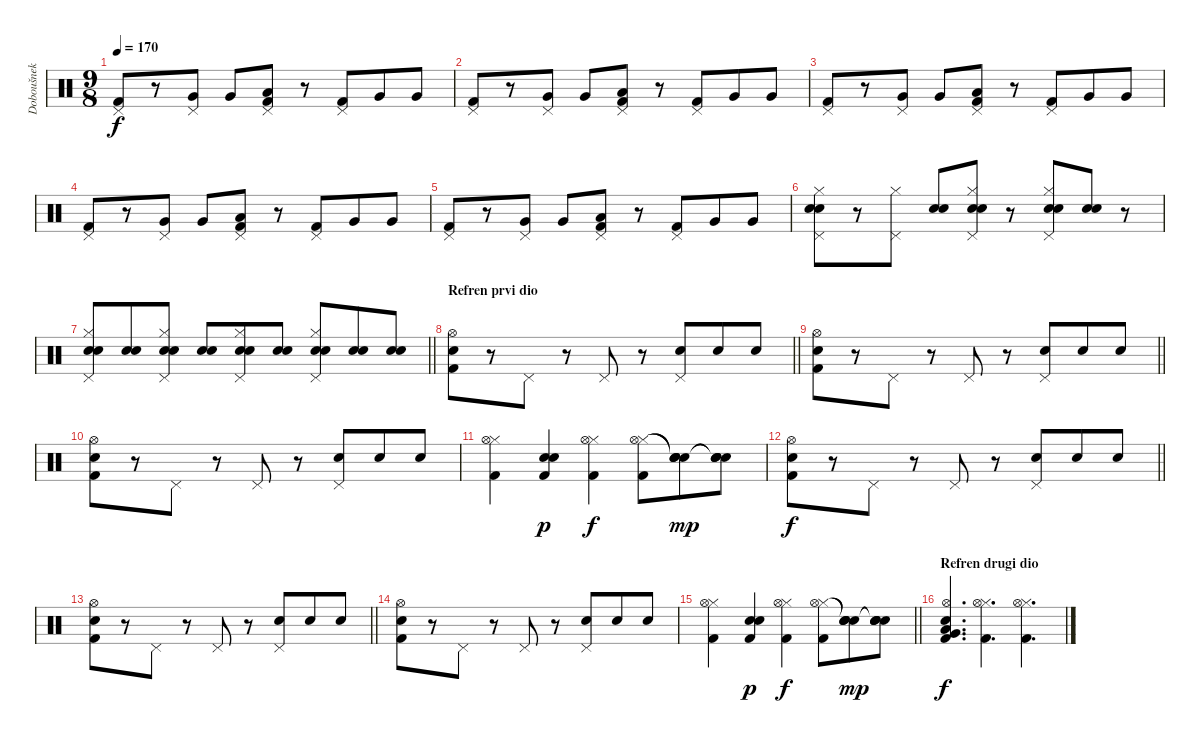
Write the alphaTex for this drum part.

\track ("Doboušnek" "Doboušnek") {instrument percussion}
\staff {score}
\articulation defaults
\ts (9 8)
\tempo 170
\clef neutral
\ks c
("Pedal Hi-Hat (hit)" "Kick (hit) 2").8{dy f} r.8 ("Pedal Hi-Hat (hit)" "Very Low Tom (hit)").8 "Very Low Tom (hit)".8 ("Pedal Hi-Hat (hit)" "Low Tom (hit)" "Kick (hit) 2").8 r.8 ("Pedal Hi-Hat (hit)" "Kick (hit) 2").8 "Very Low Tom (hit)".8 "Very Low Tom (hit)".8 |
("Pedal Hi-Hat (hit)" "Kick (hit) 2").8 r.8 ("Pedal Hi-Hat (hit)" "Very Low Tom (hit)").8 "Very Low Tom (hit)".8 ("Pedal Hi-Hat (hit)" "Low Tom (hit)" "Kick (hit) 2").8 r.8 ("Pedal Hi-Hat (hit)" "Kick (hit) 2").8 "Very Low Tom (hit)".8 "Very Low Tom (hit)".8 |
("Pedal Hi-Hat (hit)" "Kick (hit) 2").8 r.8 ("Pedal Hi-Hat (hit)" "Very Low Tom (hit)").8 "Very Low Tom (hit)".8 ("Pedal Hi-Hat (hit)" "Low Tom (hit)" "Kick (hit) 2").8 r.8 ("Pedal Hi-Hat (hit)" "Kick (hit) 2").8 "Very Low Tom (hit)".8 "Very Low Tom (hit)".8 |
("Pedal Hi-Hat (hit)" "Kick (hit) 2").8 r.8 ("Pedal Hi-Hat (hit)" "Very Low Tom (hit)").8 "Very Low Tom (hit)".8 ("Pedal Hi-Hat (hit)" "Low Tom (hit)" "Kick (hit) 2").8 r.8 ("Pedal Hi-Hat (hit)" "Kick (hit) 2").8 "Very Low Tom (hit)".8 "Very Low Tom (hit)".8 |
("Pedal Hi-Hat (hit)" "Kick (hit) 2").8 r.8 ("Pedal Hi-Hat (hit)" "Very Low Tom (hit)").8 "Very Low Tom (hit)".8 ("Pedal Hi-Hat (hit)" "Low Tom (hit)" "Kick (hit) 2").8 r.8 ("Pedal Hi-Hat (hit)" "Kick (hit) 2").8 "Very Low Tom (hit)".8 "Very Low Tom (hit)".8 |
("Pedal Hi-Hat (hit)" "Hi-Hat (closed)" "Electric Snare (hit)" "Snare (hit) 2").8 r.8 ("Pedal Hi-Hat (hit)" "Hi-Hat (closed)").8 ("Electric Snare (hit)" "Snare (hit) 2").8 ("Pedal Hi-Hat (hit)" "Hi-Hat (closed)" "Electric Snare (hit)" "Snare (hit) 2").8 r.8 ("Pedal Hi-Hat (hit)" "Hi-Hat (closed)" "Electric Snare (hit)" "Snare (hit) 2").8 ("Electric Snare (hit)" "Snare (hit) 2").8 r.8 |
\barLineRight lightlight
("Pedal Hi-Hat (hit)" "Hi-Hat (closed)" "Electric Snare (hit)" "Snare (hit) 2").8 ("Electric Snare (hit)" "Snare (hit) 2").8 ("Pedal Hi-Hat (hit)" "Hi-Hat (closed)" "Electric Snare (hit)" "Snare (hit) 2").8 ("Electric Snare (hit)" "Snare (hit) 2").8 ("Pedal Hi-Hat (hit)" "Hi-Hat (closed)" "Electric Snare (hit)" "Snare (hit) 2").8 ("Electric Snare (hit)" "Snare (hit) 2").8 ("Pedal Hi-Hat (hit)" "Hi-Hat (closed)" "Electric Snare (hit)" "Snare (hit) 2").8 ("Electric Snare (hit)" "Snare (hit) 2").8 ("Electric Snare (hit)" "Snare (hit) 2").8 |
\section ("" "Refren prvi dio")
\barLineRight lightlight
("Hi-Hat (open)" "Electric Snare (hit)" "Kick (hit) 2").8 r.8 "Pedal Hi-Hat (hit)".8 r.8 "Pedal Hi-Hat (hit)".8 r.8 ("Pedal Hi-Hat (hit)" "Electric Snare (hit)").8 "Electric Snare (hit)".8 "Electric Snare (hit)".8 |
\barLineRight lightlight
("Hi-Hat (open)" "Electric Snare (hit)" "Kick (hit) 2").8 r.8 "Pedal Hi-Hat (hit)".8 r.8 "Pedal Hi-Hat (hit)".8 r.8 ("Pedal Hi-Hat (hit)" "Electric Snare (hit)").8 "Electric Snare (hit)".8 "Electric Snare (hit)".8 |
("Hi-Hat (open)" "Electric Snare (hit)" "Kick (hit) 2").8 r.8 "Pedal Hi-Hat (hit)".8 r.8 "Pedal Hi-Hat (hit)".8 r.8 ("Pedal Hi-Hat (hit)" "Electric Snare (hit)").8 "Electric Snare (hit)".8 "Electric Snare (hit)".8 |
("Hi-Hat (closed)" "Hi-Hat (open)" "Kick (hit) 2").4 ("Snare (hit) 2" "Electric Snare (hit)" "Kick (hit) 2").4{dy p} ("Hi-Hat (closed)" "Hi-Hat (open)" "Kick (hit) 2").4{dy f} ("Hi-Hat (closed)" "Hi-Hat (open)" "Kick (hit) 2").8 ("Snare (hit)"{t} "Snare (hit)"{t} "Electric Snare (hit)" "Snare (hit) 2").8{dy mp} ("Snare (hit)"{t} "Snare (hit)"{t} "Electric Snare (hit)" "Snare (hit) 2").8 |
\barLineRight lightlight
("Hi-Hat (open)" "Electric Snare (hit)" "Kick (hit) 2").8{dy f} r.8 "Pedal Hi-Hat (hit)".8 r.8 "Pedal Hi-Hat (hit)".8 r.8 ("Pedal Hi-Hat (hit)" "Electric Snare (hit)").8 "Electric Snare (hit)".8 "Electric Snare (hit)".8 |
\barLineRight lightlight
("Hi-Hat (open)" "Electric Snare (hit)" "Kick (hit) 2").8 r.8 "Pedal Hi-Hat (hit)".8 r.8 "Pedal Hi-Hat (hit)".8 r.8 ("Pedal Hi-Hat (hit)" "Electric Snare (hit)").8 "Electric Snare (hit)".8 "Electric Snare (hit)".8 |
("Hi-Hat (open)" "Electric Snare (hit)" "Kick (hit) 2").8 r.8 "Pedal Hi-Hat (hit)".8 r.8 "Pedal Hi-Hat (hit)".8 r.8 ("Pedal Hi-Hat (hit)" "Electric Snare (hit)").8 "Electric Snare (hit)".8 "Electric Snare (hit)".8 |
\barLineRight lightlight
("Hi-Hat (closed)" "Hi-Hat (open)" "Kick (hit) 2").4 ("Snare (hit) 2" "Electric Snare (hit)" "Kick (hit) 2").4{dy p} ("Hi-Hat (closed)" "Hi-Hat (open)" "Kick (hit) 2").4{dy f} ("Hi-Hat (closed)" "Hi-Hat (open)" "Kick (hit) 2").8 ("Snare (hit)"{t} "Snare (hit)"{t} "Electric Snare (hit)" "Snare (hit) 2").8{dy mp} ("Snare (hit)"{t} "Snare (hit)"{t} "Electric Snare (hit)" "Snare (hit) 2").8 |
\section ("" "Refren drugi dio")
("Hi-Hat (open)" "Very Low Tom (hit)" "Low Floor Tom (hit)" "Electric Snare (hit)" "Kick (hit) 2").4{d dy f} ("Hi-Hat (closed)" "Hi-Hat (open)" "Kick (hit) 2").4{d} ("Hi-Hat (closed)" "Hi-Hat (open)" "Kick (hit) 2").4{d}
